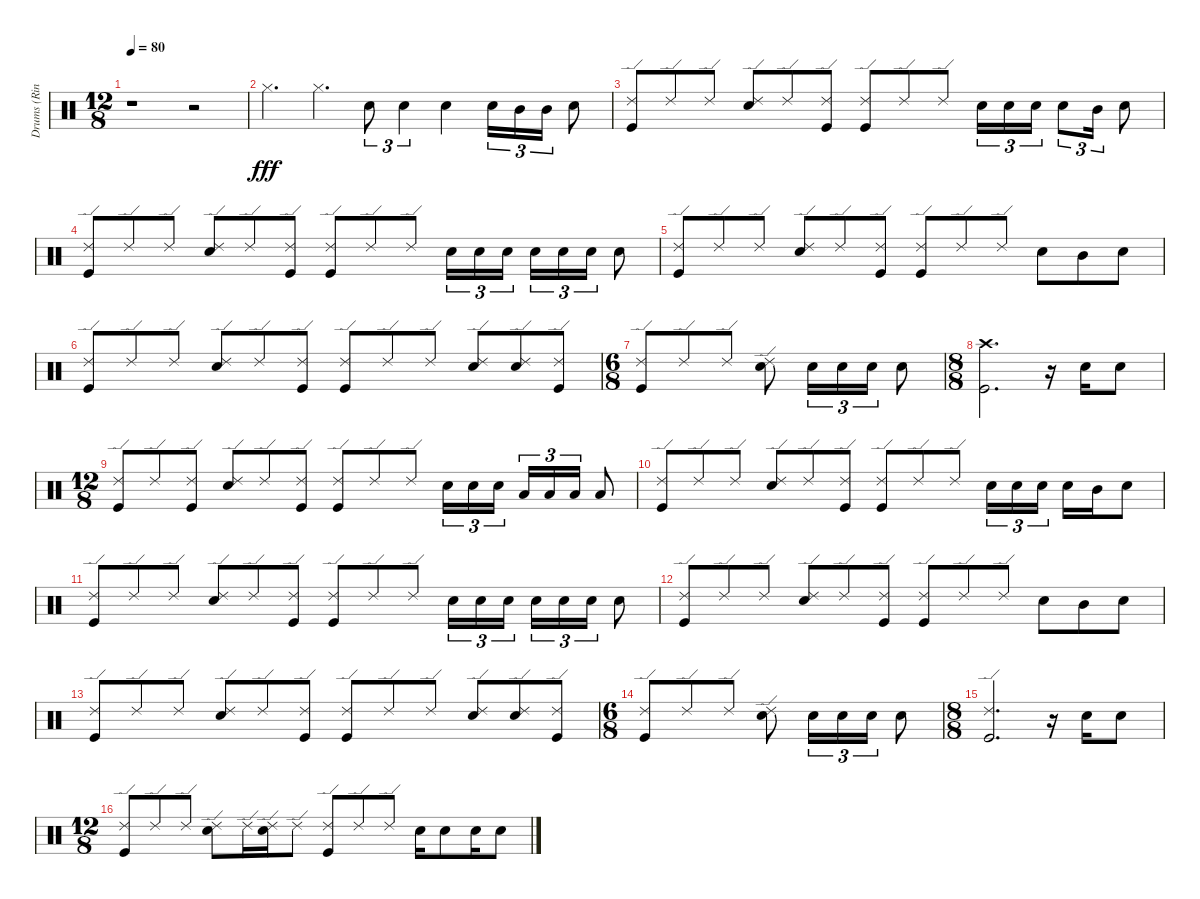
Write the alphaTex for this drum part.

\track ("Drums (Ringo Starr)" "Drums (Rin") {instrument percussion}
\staff {score}
\articulation defaults
\ts (12 8)
\tempo 80
\clef neutral
\ks c
r.1{dy fff} r.2 |
"Hi-Hat (closed)".4{d} "Hi-Hat (closed)".4{d} "Electric Snare (hit)".8{tu (3 2)} "Electric Snare (hit)".4{tu (3 2)} "Electric Snare (hit)".4 "Electric Snare (hit)".16{tu (3 2)} "Mid Tom (hit)".16{tu (3 2)} "Mid Tom (hit)".16{tu (3 2)} "Electric Snare (hit)".8 |
("Ride (edge) 2" "Kick (hit)").8 "Ride (edge) 2".8 "Ride (edge) 2".8 ("Ride (edge) 2" "Electric Snare (hit)").8 "Ride (edge) 2".8 ("Ride (edge) 2" "Kick (hit)").8 ("Ride (edge) 2" "Kick (hit)").8 "Ride (edge) 2".8 "Ride (edge) 2".8 "Electric Snare (hit)".16{tu (3 2)} "Electric Snare (hit)".16{tu (3 2)} "Electric Snare (hit)".16{tu (3 2)} "Electric Snare (hit)".8{tu (3 2)} "Mid Tom (hit)".16{tu (3 2)} "Electric Snare (hit)".8 |
("Ride (edge) 2" "Kick (hit)").8 "Ride (edge) 2".8 "Ride (edge) 2".8 ("Ride (edge) 2" "Electric Snare (hit)").8 "Ride (edge) 2".8 ("Ride (edge) 2" "Kick (hit)").8 ("Ride (edge) 2" "Kick (hit)").8 "Ride (edge) 2".8 "Ride (edge) 2".8 "Electric Snare (hit)".16{tu (3 2)} "Electric Snare (hit)".16{tu (3 2)} "Electric Snare (hit)".16{tu (3 2) beam splitsecondary} "Electric Snare (hit)".16{tu (3 2)} "Electric Snare (hit)".16{tu (3 2)} "Electric Snare (hit)".16{tu (3 2)} "Electric Snare (hit)".8 |
("Ride (edge) 2" "Kick (hit)").8 "Ride (edge) 2".8 "Ride (edge) 2".8 ("Ride (edge) 2" "Electric Snare (hit)").8 "Ride (edge) 2".8 ("Ride (edge) 2" "Kick (hit)").8 ("Ride (edge) 2" "Kick (hit)").8 "Ride (edge) 2".8 "Ride (edge) 2".8 "Electric Snare (hit)".8 "Mid Tom (hit)".8 "Electric Snare (hit)".8 |
("Ride (edge) 2" "Kick (hit)").8 "Ride (edge) 2".8 "Ride (edge) 2".8 ("Ride (edge) 2" "Electric Snare (hit)").8 "Ride (edge) 2".8 ("Ride (edge) 2" "Kick (hit)").8 ("Ride (edge) 2" "Kick (hit)").8 "Ride (edge) 2".8 "Ride (edge) 2".8 ("Ride (edge) 2" "Electric Snare (hit)").8 ("Ride (edge) 2" "Electric Snare (hit)").8 ("Ride (edge) 2" "Kick (hit)").8 |
\ts (6 8)
("Ride (edge) 2" "Kick (hit)").8 "Ride (edge) 2".8 "Ride (edge) 2".8 ("Ride (edge) 2" "Electric Snare (hit)").8 "Electric Snare (hit)".16{tu (3 2)} "Electric Snare (hit)".16{tu (3 2)} "Electric Snare (hit)".16{tu (3 2)} "Electric Snare (hit)".8 |
\ts (8 8)
("Kick (hit)" "Crash high (hit)").2{d} r.16 "Electric Snare (hit)".16 "Electric Snare (hit)".8 |
\ts (12 8)
("Ride (edge) 2" "Kick (hit)").8 "Ride (edge) 2".8 ("Ride (edge) 2" "Kick (hit)").8 ("Ride (edge) 2" "Electric Snare (hit)").8 "Ride (edge) 2".8 ("Ride (edge) 2" "Kick (hit)").8 ("Ride (edge) 2" "Kick (hit)").8 "Ride (edge) 2".8 "Ride (edge) 2".8 "Electric Snare (hit)".16{tu (3 2)} "Electric Snare (hit)".16{tu (3 2)} "Electric Snare (hit)".16{tu (3 2) beam splitsecondary} "Low Floor Tom (hit)".16{tu (3 2)} "Low Floor Tom (hit)".16{tu (3 2)} "Low Floor Tom (hit)".16{tu (3 2)} "Low Floor Tom (hit)".8 |
("Ride (edge) 2" "Kick (hit)").8 "Ride (edge) 2".8 "Ride (edge) 2".8 ("Ride (edge) 2" "Electric Snare (hit)").8 "Ride (edge) 2".8 ("Ride (edge) 2" "Kick (hit)").8 ("Ride (edge) 2" "Kick (hit)").8 "Ride (edge) 2".8 "Ride (edge) 2".8 "Electric Snare (hit)".16{tu (3 2)} "Electric Snare (hit)".16{tu (3 2)} "Electric Snare (hit)".16{tu (3 2) beam splitsecondary} "Electric Snare (hit)".16 "Mid Tom (hit)".16 "Electric Snare (hit)".8 |
("Ride (edge) 2" "Kick (hit)").8 "Ride (edge) 2".8 "Ride (edge) 2".8 ("Ride (edge) 2" "Electric Snare (hit)").8 "Ride (edge) 2".8 ("Ride (edge) 2" "Kick (hit)").8 ("Ride (edge) 2" "Kick (hit)").8 "Ride (edge) 2".8 "Ride (edge) 2".8 "Electric Snare (hit)".16{tu (3 2)} "Electric Snare (hit)".16{tu (3 2)} "Electric Snare (hit)".16{tu (3 2) beam splitsecondary} "Electric Snare (hit)".16{tu (3 2)} "Electric Snare (hit)".16{tu (3 2)} "Electric Snare (hit)".16{tu (3 2)} "Electric Snare (hit)".8 |
("Ride (edge) 2" "Kick (hit)").8 "Ride (edge) 2".8 "Ride (edge) 2".8 ("Ride (edge) 2" "Electric Snare (hit)").8 "Ride (edge) 2".8 ("Ride (edge) 2" "Kick (hit)").8 ("Ride (edge) 2" "Kick (hit)").8 "Ride (edge) 2".8 "Ride (edge) 2".8 "Electric Snare (hit)".8 "Mid Tom (hit)".8 "Electric Snare (hit)".8 |
("Ride (edge) 2" "Kick (hit)").8 "Ride (edge) 2".8 "Ride (edge) 2".8 ("Ride (edge) 2" "Electric Snare (hit)").8 "Ride (edge) 2".8 ("Ride (edge) 2" "Kick (hit)").8 ("Ride (edge) 2" "Kick (hit)").8 "Ride (edge) 2".8 "Ride (edge) 2".8 ("Ride (edge) 2" "Electric Snare (hit)").8 ("Ride (edge) 2" "Electric Snare (hit)").8 ("Ride (edge) 2" "Kick (hit)").8 |
\ts (6 8)
("Ride (edge) 2" "Kick (hit)").8 "Ride (edge) 2".8 "Ride (edge) 2".8 ("Ride (edge) 2" "Electric Snare (hit)").8 "Electric Snare (hit)".16{tu (3 2)} "Electric Snare (hit)".16{tu (3 2)} "Electric Snare (hit)".16{tu (3 2)} "Electric Snare (hit)".8 |
\ts (8 8)
("Ride (edge) 2" "Kick (hit)").2{d} r.16 "Electric Snare (hit)".16 "Electric Snare (hit)".8 |
\ts (12 8)
("Ride (edge) 2" "Kick (hit)").8 "Ride (edge) 2".8 "Ride (edge) 2".8 ("Ride (edge) 2" "Electric Snare (hit)").8 "Ride (edge) 2".16 ("Ride (edge) 2" "Electric Snare (hit)").16 "Ride (edge) 2".8 ("Ride (edge) 2" "Kick (hit)").8 "Ride (edge) 2".8 "Ride (edge) 2".8 "Electric Snare (hit)".16 "Electric Snare (hit)".8 "Electric Snare (hit)".16 "Electric Snare (hit)".8
